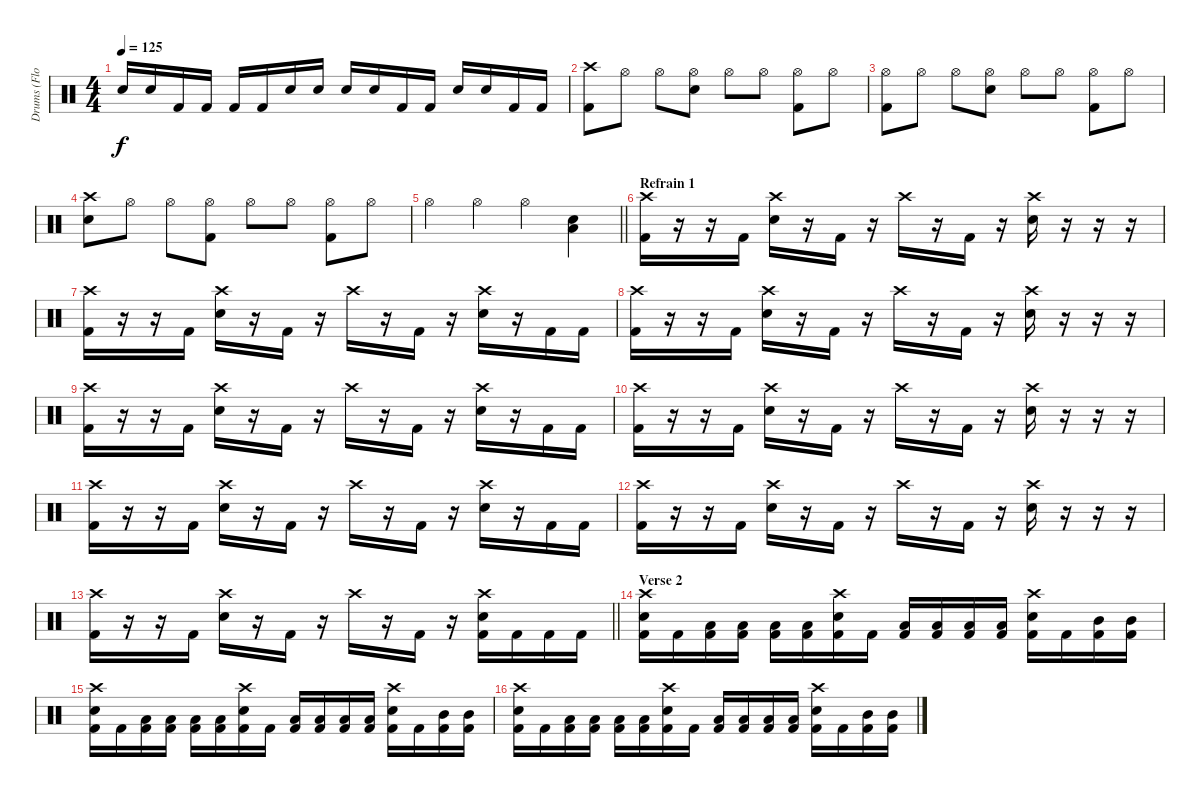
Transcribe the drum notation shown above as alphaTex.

\track ("Drums (Floboter)" "Drums (Flo") {instrument percussion}
\staff {score}
\articulation defaults
\ts (4 4)
\tempo 125
\clef neutral
\ks c "Snare (hit) 2".16{dy f} "Snare (hit) 2".16 "Kick (hit) 2".16 "Kick (hit) 2".16 "Kick (hit) 2".16 "Kick (hit) 2".16 "Snare (hit) 2".16 "Snare (hit) 2".16 "Snare (hit) 2".16 "Snare (hit) 2".16 "Kick (hit) 2".16 "Kick (hit) 2".16 "Snare (hit) 2".16 "Snare (hit) 2".16 "Kick (hit) 2".16 "Kick (hit) 2".16
|
("Crash high (hit)" "Kick (hit) 2").8 "Hi-Hat (open)".8 "Hi-Hat (open)".8 ("Hi-Hat (open)" "Snare (hit) 2").8 "Hi-Hat (open)".8 "Hi-Hat (open)".8 ("Hi-Hat (open)" "Kick (hit) 2").8 "Hi-Hat (open)".8 |
("Hi-Hat (open)" "Kick (hit) 2").8 "Hi-Hat (open)".8 "Hi-Hat (open)".8 ("Hi-Hat (open)" "Snare (hit) 2").8 "Hi-Hat (open)".8 "Hi-Hat (open)".8 ("Hi-Hat (open)" "Kick (hit) 2").8 "Hi-Hat (open)".8 |
("Crash high (hit)" "Snare (hit) 2").8 "Hi-Hat (open)".8 "Hi-Hat (open)".8 ("Hi-Hat (open)" "Kick (hit) 2").8 "Hi-Hat (open)".8 "Hi-Hat (open)".8 ("Hi-Hat (open)" "Kick (hit) 2").8 "Hi-Hat (open)".8 |
\barLineRight lightlight "Hi-Hat (open)".4 "Hi-Hat (open)".4 "Hi-Hat (open)".4
("Low Floor Tom (hit)" "Snare (hit) 2").4 |
\section ("" "Refrain 1")
("Crash high (hit)" "Kick (hit) 2").16 r.16 r.16 "Kick (hit) 2".16 ("Crash high (hit)" "Snare (hit) 2").16 r.16 "Kick (hit) 2".16 r.16 "Crash high (hit)".16 r.16 "Kick (hit) 2".16 r.16 ("Crash high (hit)" "Snare (hit) 2").16 r.16 r.16 r.16 |
("Crash high (hit)" "Kick (hit) 2").16 r.16 r.16 "Kick (hit) 2".16 ("Crash high (hit)" "Snare (hit) 2").16 r.16 "Kick (hit) 2".16 r.16 "Crash high (hit)".16 r.16 "Kick (hit) 2".16 r.16 ("Crash high (hit)" "Snare (hit) 2").16 r.16 "Kick (hit) 2".16 "Kick (hit) 2".16 |
("Crash high (hit)" "Kick (hit) 2").16 r.16 r.16 "Kick (hit) 2".16 ("Crash high (hit)" "Snare (hit) 2").16 r.16 "Kick (hit) 2".16 r.16 "Crash high (hit)".16 r.16 "Kick (hit) 2".16 r.16 ("Crash high (hit)" "Snare (hit) 2").16 r.16 r.16 r.16 |
("Crash high (hit)" "Kick (hit) 2").16 r.16 r.16 "Kick (hit) 2".16 ("Crash high (hit)" "Snare (hit) 2").16 r.16 "Kick (hit) 2".16 r.16 "Crash high (hit)".16 r.16 "Kick (hit) 2".16 r.16 ("Crash high (hit)" "Snare (hit) 2").16 r.16 "Kick (hit) 2".16 "Kick (hit) 2".16 |
("Crash high (hit)" "Kick (hit) 2").16 r.16 r.16 "Kick (hit) 2".16 ("Crash high (hit)" "Snare (hit) 2").16 r.16 "Kick (hit) 2".16 r.16 "Crash high (hit)".16 r.16 "Kick (hit) 2".16 r.16 ("Crash high (hit)" "Snare (hit) 2").16 r.16 r.16 r.16 |
("Crash high (hit)" "Kick (hit) 2").16 r.16 r.16 "Kick (hit) 2".16 ("Crash high (hit)" "Snare (hit) 2").16 r.16 "Kick (hit) 2".16 r.16 "Crash high (hit)".16 r.16 "Kick (hit) 2".16 r.16 ("Crash high (hit)" "Snare (hit) 2").16 r.16 "Kick (hit) 2".16 "Kick (hit) 2".16 |
("Crash high (hit)" "Kick (hit) 2").16 r.16 r.16 "Kick (hit) 2".16 ("Crash high (hit)" "Snare (hit) 2").16 r.16 "Kick (hit) 2".16 r.16 "Crash high (hit)".16 r.16 "Kick (hit) 2".16 r.16 ("Crash high (hit)" "Snare (hit) 2").16 r.16 r.16 r.16 |
\barLineRight lightlight
("Crash high (hit)" "Kick (hit) 2").16 r.16 r.16 "Kick (hit) 2".16 ("Crash high (hit)" "Snare (hit) 2").16 r.16 "Kick (hit) 2".16 r.16 "Crash high (hit)".16 r.16 "Kick (hit) 2".16 r.16 ("Crash high (hit)" "Snare (hit) 2" "Kick (hit) 2").16 "Kick (hit) 2".16 "Kick (hit) 2".16 "Kick (hit) 2".16 |
\section ("" "Verse 2")
("Crash high (hit)" "Snare (hit) 2" "Kick (hit) 2").16 "Kick (hit) 2".16 ("Low Tom (hit)" "Kick (hit) 2").16 ("Low Tom (hit)" "Kick (hit) 2").16 ("Low Floor Tom (hit)" "Kick (hit) 2").16 ("Low Floor Tom (hit)" "Kick (hit) 2").16 ("Crash high (hit)" "Snare (hit) 2" "Kick (hit) 2").16 "Kick (hit) 2".16 ("Low Tom (hit)" "Kick (hit) 2").16 ("Low Tom (hit)" "Kick (hit) 2").16 ("Low Floor Tom (hit)" "Kick (hit) 2").16 ("Low Floor Tom (hit)" "Kick (hit) 2").16 ("Crash high (hit)" "Snare (hit) 2" "Kick (hit) 2").16 "Kick (hit) 2".16 ("Mid Tom (hit)" "Kick (hit) 2").16 ("Mid Tom (hit)" "Kick (hit) 2").16 |
("Crash high (hit)" "Snare (hit) 2" "Kick (hit) 2").16 "Kick (hit) 2".16 ("Low Tom (hit)" "Kick (hit) 2").16 ("Low Tom (hit)" "Kick (hit) 2").16 ("Low Floor Tom (hit)" "Kick (hit) 2").16 ("Low Floor Tom (hit)" "Kick (hit) 2").16 ("Crash high (hit)" "Snare (hit) 2" "Kick (hit) 2").16 "Kick (hit) 2".16 ("Low Tom (hit)" "Kick (hit) 2").16 ("Low Tom (hit)" "Kick (hit) 2").16 ("Low Floor Tom (hit)" "Kick (hit) 2").16 ("Low Floor Tom (hit)" "Kick (hit) 2").16 ("Crash high (hit)" "Snare (hit) 2" "Kick (hit) 2").16 "Kick (hit) 2".16 ("Mid Tom (hit)" "Kick (hit) 2").16 ("Mid Tom (hit)" "Kick (hit) 2").16 |
("Crash high (hit)" "Snare (hit) 2" "Kick (hit) 2").16 "Kick (hit) 2".16 ("Low Tom (hit)" "Kick (hit) 2").16 ("Low Tom (hit)" "Kick (hit) 2").16 ("Low Floor Tom (hit)" "Kick (hit) 2").16 ("Low Floor Tom (hit)" "Kick (hit) 2").16 ("Crash high (hit)" "Snare (hit) 2" "Kick (hit) 2").16 "Kick (hit) 2".16 ("Low Tom (hit)" "Kick (hit) 2").16 ("Low Tom (hit)" "Kick (hit) 2").16 ("Low Floor Tom (hit)" "Kick (hit) 2").16 ("Low Floor Tom (hit)" "Kick (hit) 2").16 ("Crash high (hit)" "Snare (hit) 2" "Kick (hit) 2").16 "Kick (hit) 2".16 ("Mid Tom (hit)" "Kick (hit) 2").16 ("Mid Tom (hit)" "Kick (hit) 2").16
